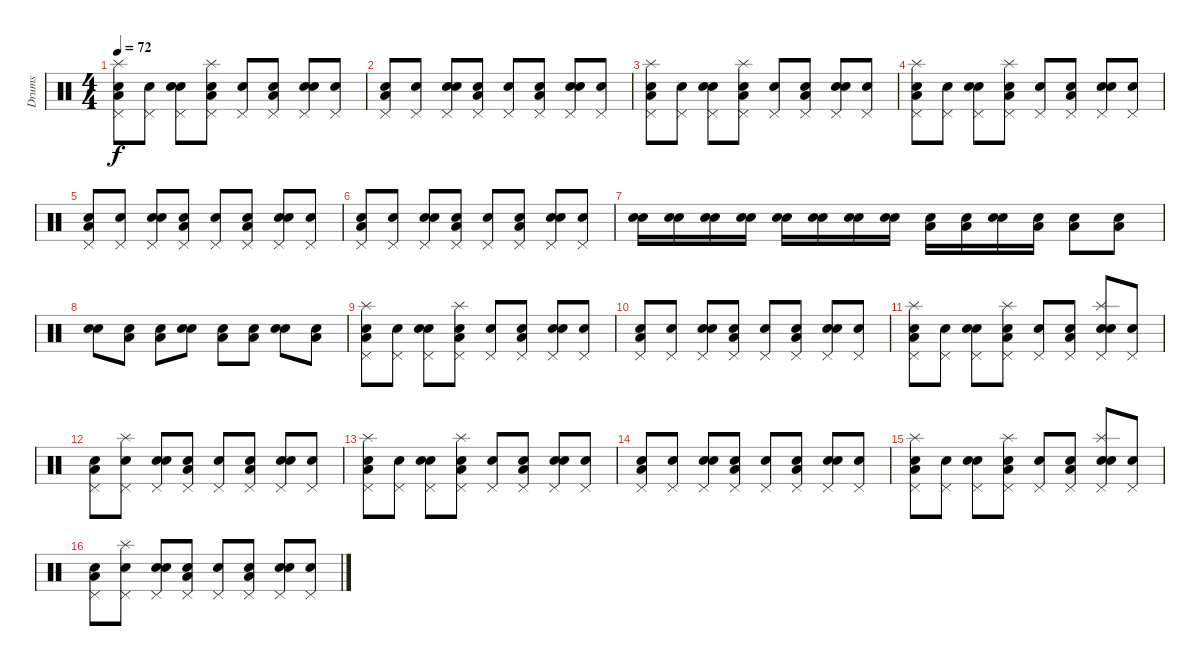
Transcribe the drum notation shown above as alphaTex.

\track ("Drums" "Drums") {instrument percussion}
\staff {score}
\articulation defaults
\ts (4 4)
\tempo 72
\clef neutral
\ks c
("Snare (hit)" "Low Floor Tom (hit)" "Pedal Hi-Hat (hit)" "Splash (hit)").8{dy f} ("Snare (hit)" "Pedal Hi-Hat (hit)").8 ("Snare (hit)" "Electric Snare (hit)" "Pedal Hi-Hat (hit)").8 ("Snare (hit)" "Low Floor Tom (hit)" "Pedal Hi-Hat (hit)" "Splash (hit)").8 ("Snare (hit)" "Pedal Hi-Hat (hit)").8 ("Snare (hit)" "Low Floor Tom (hit)" "Pedal Hi-Hat (hit)").8 ("Snare (hit)" "Electric Snare (hit)" "Pedal Hi-Hat (hit)").8 ("Snare (hit)" "Pedal Hi-Hat (hit)").8 |
("Snare (hit)" "Low Floor Tom (hit)" "Pedal Hi-Hat (hit)").8 ("Snare (hit)" "Pedal Hi-Hat (hit)").8 ("Snare (hit)" "Electric Snare (hit)" "Pedal Hi-Hat (hit)").8 ("Snare (hit)" "Low Floor Tom (hit)" "Pedal Hi-Hat (hit)").8 ("Snare (hit)" "Pedal Hi-Hat (hit)").8 ("Snare (hit)" "Low Floor Tom (hit)" "Pedal Hi-Hat (hit)").8 ("Snare (hit)" "Electric Snare (hit)" "Pedal Hi-Hat (hit)").8 ("Snare (hit)" "Pedal Hi-Hat (hit)").8 |
("Snare (hit)" "Low Floor Tom (hit)" "Pedal Hi-Hat (hit)" "Splash (hit)").8 ("Snare (hit)" "Pedal Hi-Hat (hit)").8 ("Snare (hit)" "Electric Snare (hit)" "Pedal Hi-Hat (hit)").8 ("Snare (hit)" "Low Floor Tom (hit)" "Pedal Hi-Hat (hit)" "Splash (hit)").8 ("Snare (hit)" "Pedal Hi-Hat (hit)").8 ("Snare (hit)" "Low Floor Tom (hit)" "Pedal Hi-Hat (hit)").8 ("Snare (hit)" "Electric Snare (hit)" "Pedal Hi-Hat (hit)").8 ("Snare (hit)" "Pedal Hi-Hat (hit)").8 |
("Snare (hit)" "Low Floor Tom (hit)" "Pedal Hi-Hat (hit)" "Splash (hit)").8 ("Snare (hit)" "Pedal Hi-Hat (hit)").8 ("Snare (hit)" "Electric Snare (hit)" "Pedal Hi-Hat (hit)").8 ("Snare (hit)" "Low Floor Tom (hit)" "Pedal Hi-Hat (hit)" "Splash (hit)").8 ("Snare (hit)" "Pedal Hi-Hat (hit)").8 ("Snare (hit)" "Low Floor Tom (hit)" "Pedal Hi-Hat (hit)").8 ("Snare (hit)" "Electric Snare (hit)" "Pedal Hi-Hat (hit)").8 ("Snare (hit)" "Pedal Hi-Hat (hit)").8 |
("Snare (hit)" "Low Floor Tom (hit)" "Pedal Hi-Hat (hit)").8 ("Snare (hit)" "Pedal Hi-Hat (hit)").8 ("Snare (hit)" "Electric Snare (hit)" "Pedal Hi-Hat (hit)").8 ("Snare (hit)" "Low Floor Tom (hit)" "Pedal Hi-Hat (hit)").8 ("Snare (hit)" "Pedal Hi-Hat (hit)").8 ("Snare (hit)" "Low Floor Tom (hit)" "Pedal Hi-Hat (hit)").8 ("Snare (hit)" "Electric Snare (hit)" "Pedal Hi-Hat (hit)").8 ("Snare (hit)" "Pedal Hi-Hat (hit)").8 |
("Snare (hit)" "Low Floor Tom (hit)" "Pedal Hi-Hat (hit)").8 ("Snare (hit)" "Pedal Hi-Hat (hit)").8 ("Snare (hit)" "Electric Snare (hit)" "Pedal Hi-Hat (hit)").8 ("Snare (hit)" "Low Floor Tom (hit)" "Pedal Hi-Hat (hit)").8 ("Snare (hit)" "Pedal Hi-Hat (hit)").8 ("Snare (hit)" "Low Floor Tom (hit)" "Pedal Hi-Hat (hit)").8 ("Snare (hit)" "Electric Snare (hit)" "Pedal Hi-Hat (hit)").8 ("Snare (hit)" "Pedal Hi-Hat (hit)").8 |
("Snare (hit)" "Electric Snare (hit)").16 ("Snare (hit)" "Electric Snare (hit)").16 ("Snare (hit)" "Electric Snare (hit)").16 ("Snare (hit)" "Electric Snare (hit)").16 ("Snare (hit)" "Electric Snare (hit)").16 ("Snare (hit)" "Electric Snare (hit)").16 ("Snare (hit)" "Electric Snare (hit)").16 ("Snare (hit)" "Electric Snare (hit)").16 ("Snare (hit)" "Low Floor Tom (hit)").16 ("Snare (hit)" "Low Floor Tom (hit)").16 ("Snare (hit)" "Electric Snare (hit)").16 ("Snare (hit)" "Low Floor Tom (hit)").16 ("Snare (hit)" "Low Floor Tom (hit)").8 ("Snare (hit)" "Low Floor Tom (hit)").8 |
("Snare (hit)" "Electric Snare (hit)").8 ("Snare (hit)" "Low Floor Tom (hit)").8 ("Snare (hit)" "Low Floor Tom (hit)").8 ("Snare (hit)" "Electric Snare (hit)").8 ("Snare (hit)" "Low Floor Tom (hit)").8 ("Snare (hit)" "Low Floor Tom (hit)").8 ("Snare (hit)" "Electric Snare (hit)").8 ("Snare (hit)" "Low Floor Tom (hit)").8 |
("Snare (hit)" "Low Floor Tom (hit)" "Pedal Hi-Hat (hit)" "Splash (hit)").8 ("Snare (hit)" "Pedal Hi-Hat (hit)").8 ("Snare (hit)" "Electric Snare (hit)" "Pedal Hi-Hat (hit)").8 ("Snare (hit)" "Low Floor Tom (hit)" "Pedal Hi-Hat (hit)" "Splash (hit)").8 ("Snare (hit)" "Pedal Hi-Hat (hit)").8 ("Snare (hit)" "Low Floor Tom (hit)" "Pedal Hi-Hat (hit)").8 ("Snare (hit)" "Electric Snare (hit)" "Pedal Hi-Hat (hit)").8 ("Snare (hit)" "Pedal Hi-Hat (hit)").8 |
("Snare (hit)" "Low Floor Tom (hit)" "Pedal Hi-Hat (hit)").8 ("Snare (hit)" "Pedal Hi-Hat (hit)").8 ("Snare (hit)" "Electric Snare (hit)" "Pedal Hi-Hat (hit)").8 ("Snare (hit)" "Low Floor Tom (hit)" "Pedal Hi-Hat (hit)").8 ("Snare (hit)" "Pedal Hi-Hat (hit)").8 ("Snare (hit)" "Low Floor Tom (hit)" "Pedal Hi-Hat (hit)").8 ("Snare (hit)" "Electric Snare (hit)" "Pedal Hi-Hat (hit)").8 ("Snare (hit)" "Pedal Hi-Hat (hit)").8 |
("Snare (hit)" "Low Floor Tom (hit)" "Pedal Hi-Hat (hit)" "Splash (hit)").8 ("Snare (hit)" "Pedal Hi-Hat (hit)").8 ("Snare (hit)" "Electric Snare (hit)" "Pedal Hi-Hat (hit)").8 ("Snare (hit)" "Low Floor Tom (hit)" "Pedal Hi-Hat (hit)" "Splash (hit)").8 ("Snare (hit)" "Pedal Hi-Hat (hit)").8 ("Snare (hit)" "Low Floor Tom (hit)" "Pedal Hi-Hat (hit)").8 ("Snare (hit)" "Electric Snare (hit)" "Pedal Hi-Hat (hit)" "Splash (hit)").8 ("Snare (hit)" "Pedal Hi-Hat (hit)").8 |
("Snare (hit)" "Low Floor Tom (hit)" "Pedal Hi-Hat (hit)").8 ("Snare (hit)" "Pedal Hi-Hat (hit)" "Splash (hit)").8 ("Snare (hit)" "Electric Snare (hit)" "Pedal Hi-Hat (hit)").8 ("Snare (hit)" "Low Floor Tom (hit)" "Pedal Hi-Hat (hit)").8 ("Snare (hit)" "Pedal Hi-Hat (hit)").8 ("Snare (hit)" "Low Floor Tom (hit)" "Pedal Hi-Hat (hit)").8 ("Snare (hit)" "Electric Snare (hit)" "Pedal Hi-Hat (hit)").8 ("Snare (hit)" "Pedal Hi-Hat (hit)").8 |
("Snare (hit)" "Low Floor Tom (hit)" "Pedal Hi-Hat (hit)" "Splash (hit)").8 ("Snare (hit)" "Pedal Hi-Hat (hit)").8 ("Snare (hit)" "Electric Snare (hit)" "Pedal Hi-Hat (hit)").8 ("Snare (hit)" "Low Floor Tom (hit)" "Pedal Hi-Hat (hit)" "Splash (hit)").8 ("Snare (hit)" "Pedal Hi-Hat (hit)").8 ("Snare (hit)" "Low Floor Tom (hit)" "Pedal Hi-Hat (hit)").8 ("Snare (hit)" "Electric Snare (hit)" "Pedal Hi-Hat (hit)").8 ("Snare (hit)" "Pedal Hi-Hat (hit)").8 |
("Snare (hit)" "Low Floor Tom (hit)" "Pedal Hi-Hat (hit)").8 ("Snare (hit)" "Pedal Hi-Hat (hit)").8 ("Snare (hit)" "Electric Snare (hit)" "Pedal Hi-Hat (hit)").8 ("Snare (hit)" "Low Floor Tom (hit)" "Pedal Hi-Hat (hit)").8 ("Snare (hit)" "Pedal Hi-Hat (hit)").8 ("Snare (hit)" "Low Floor Tom (hit)" "Pedal Hi-Hat (hit)").8 ("Snare (hit)" "Electric Snare (hit)" "Pedal Hi-Hat (hit)").8 ("Snare (hit)" "Pedal Hi-Hat (hit)").8 |
("Snare (hit)" "Low Floor Tom (hit)" "Pedal Hi-Hat (hit)" "Splash (hit)").8 ("Snare (hit)" "Pedal Hi-Hat (hit)").8 ("Snare (hit)" "Electric Snare (hit)" "Pedal Hi-Hat (hit)").8 ("Snare (hit)" "Low Floor Tom (hit)" "Pedal Hi-Hat (hit)" "Splash (hit)").8 ("Snare (hit)" "Pedal Hi-Hat (hit)").8 ("Snare (hit)" "Low Floor Tom (hit)" "Pedal Hi-Hat (hit)").8 ("Snare (hit)" "Electric Snare (hit)" "Pedal Hi-Hat (hit)" "Splash (hit)").8 ("Snare (hit)" "Pedal Hi-Hat (hit)").8 |
("Snare (hit)" "Low Floor Tom (hit)" "Pedal Hi-Hat (hit)").8 ("Snare (hit)" "Pedal Hi-Hat (hit)" "Splash (hit)").8 ("Snare (hit)" "Electric Snare (hit)" "Pedal Hi-Hat (hit)").8 ("Snare (hit)" "Low Floor Tom (hit)" "Pedal Hi-Hat (hit)").8 ("Snare (hit)" "Pedal Hi-Hat (hit)").8 ("Snare (hit)" "Low Floor Tom (hit)" "Pedal Hi-Hat (hit)").8 ("Snare (hit)" "Electric Snare (hit)" "Pedal Hi-Hat (hit)").8 ("Snare (hit)" "Pedal Hi-Hat (hit)").8
